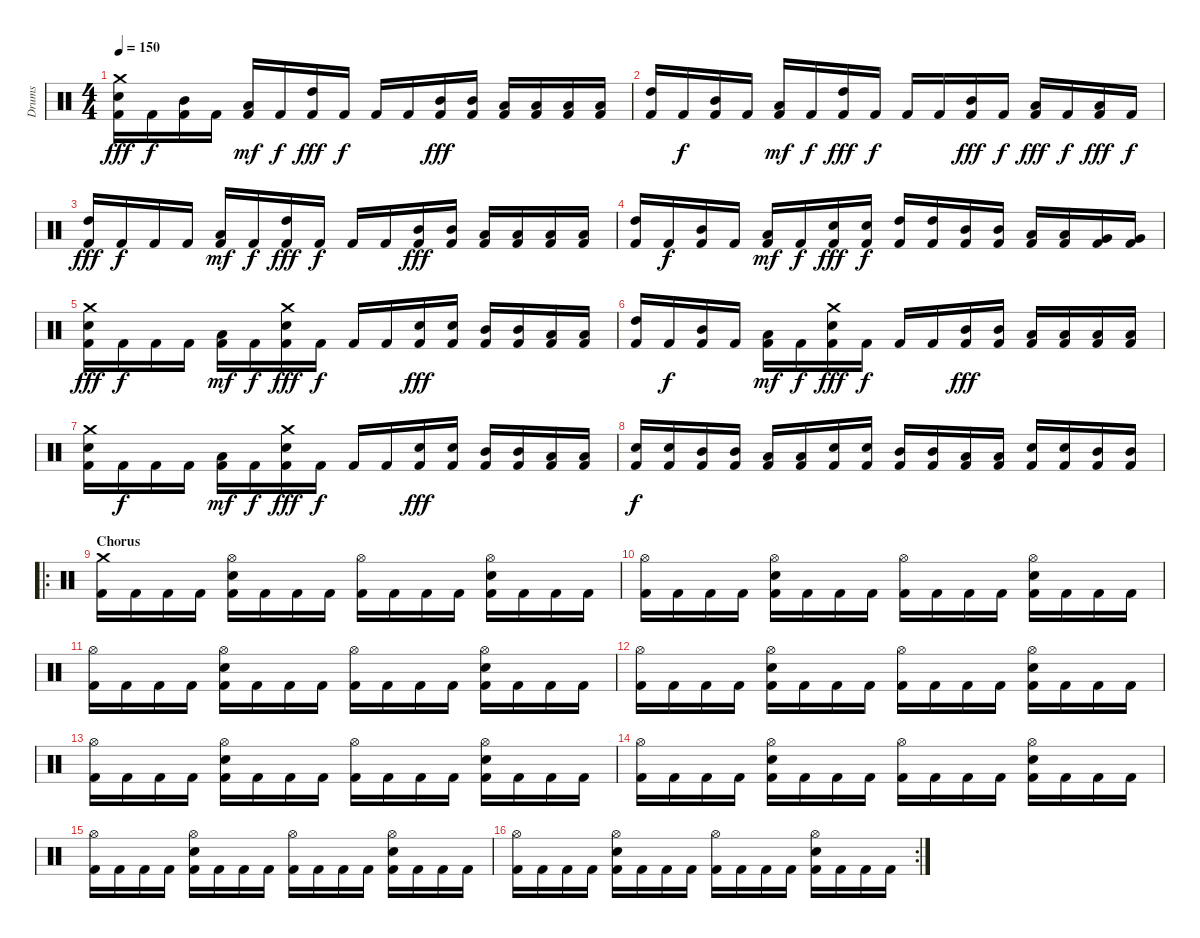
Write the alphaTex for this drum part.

\track ("Drums" "Drums") {instrument percussion}
\staff {score}
\articulation defaults
\ts (4 4)
\tempo 150
\clef neutral
\ks c
("Kick (hit) 2" "Electric Snare (hit)" "Crash medium (hit)").16{dy fff} "Kick (hit) 2".16{dy f} ("Kick (hit) 2" "Mid Tom (hit)").16 "Kick (hit) 2".16 ("Kick (hit) 2" "Low Tom (hit)").16{dy mf} "Kick (hit) 2".16{dy f} ("Kick (hit) 2" "High Tom (hit)").16{dy fff} "Kick (hit) 2".16{dy f} "Kick (hit) 2".16 "Kick (hit) 2".16 ("Kick (hit) 2" "Mid Tom (hit)").16{dy fff} ("Kick (hit) 2" "Mid Tom (hit)").16 ("Kick (hit) 2" "Low Tom (hit)").16 ("Kick (hit) 2" "Low Tom (hit)").16 ("Kick (hit) 2" "Low Tom (hit)").16 ("Kick (hit) 2" "Low Tom (hit)").16 |
("Kick (hit) 2" "High Tom (hit)").16 "Kick (hit) 2".16{dy f} ("Kick (hit) 2" "Mid Tom (hit)").16 "Kick (hit) 2".16 ("Kick (hit) 2" "Low Tom (hit)").16{dy mf} "Kick (hit) 2".16{dy f} ("Kick (hit) 2" "High Tom (hit)").16{dy fff} "Kick (hit) 2".16{dy f} "Kick (hit) 2".16 "Kick (hit) 2".16 ("Kick (hit) 2" "Mid Tom (hit)").16{dy fff} "Kick (hit) 2".16{dy f} ("Kick (hit) 2" "Low Tom (hit)").16{dy fff} "Kick (hit) 2".16{dy f} ("Kick (hit) 2" "Low Tom (hit)").16{dy fff} "Kick (hit) 2".16{dy f} |
("Kick (hit) 2" "High Tom (hit)").16{dy fff} "Kick (hit) 2".16{dy f} "Kick (hit) 2".16 "Kick (hit) 2".16 ("Kick (hit) 2" "Low Tom (hit)").16{dy mf} "Kick (hit) 2".16{dy f} ("Kick (hit) 2" "High Tom (hit)").16{dy fff} "Kick (hit) 2".16{dy f} "Kick (hit) 2".16 "Kick (hit) 2".16 ("Kick (hit) 2" "Mid Tom (hit)").16{dy fff} ("Kick (hit) 2" "Mid Tom (hit)").16 ("Kick (hit) 2" "Low Tom (hit)").16 ("Kick (hit) 2" "Low Tom (hit)").16 ("Kick (hit) 2" "Low Tom (hit)").16 ("Kick (hit) 2" "Low Tom (hit)").16 |
("Kick (hit) 2" "High Tom (hit)").16 "Kick (hit) 2".16{dy f} ("Kick (hit) 2" "Mid Tom (hit)").16 "Kick (hit) 2".16 ("Kick (hit) 2" "Low Tom (hit)").16{dy mf} "Kick (hit) 2".16{dy f} ("Kick (hit) 2" "Electric Snare (hit)").16{dy fff} ("Kick (hit) 2" "Electric Snare (hit)").16{dy f} ("Kick (hit) 2" "High Tom (hit)").16 ("Kick (hit) 2" "High Tom (hit)").16 ("Kick (hit) 2" "Mid Tom (hit)").16 ("Kick (hit) 2" "Mid Tom (hit)").16 ("Kick (hit) 2" "Low Tom (hit)").16 ("Kick (hit) 2" "Low Tom (hit)").16 ("Kick (hit) 2" "Very Low Tom (hit)").16 ("Kick (hit) 2" "Very Low Tom (hit)").16 |
("Kick (hit) 2" "Electric Snare (hit)" "Crash medium (hit)").16{dy fff} "Kick (hit) 2".16{dy f} "Kick (hit) 2".16 "Kick (hit) 2".16 ("Kick (hit) 2" "Low Tom (hit)").16{dy mf} "Kick (hit) 2".16{dy f} ("Kick (hit) 2" "Electric Snare (hit)" "Crash medium (hit)").16{dy fff} "Kick (hit) 2".16{dy f} "Kick (hit) 2".16 "Kick (hit) 2".16 ("Kick (hit) 2" "Electric Snare (hit)").16{dy fff} ("Kick (hit) 2" "Electric Snare (hit)").16 ("Kick (hit) 2" "Mid Tom (hit)").16 ("Kick (hit) 2" "Mid Tom (hit)").16 ("Kick (hit) 2" "Low Tom (hit)").16 ("Kick (hit) 2" "Low Tom (hit)").16 |
("Kick (hit) 2" "High Tom (hit)").16 "Kick (hit) 2".16{dy f} ("Kick (hit) 2" "Mid Tom (hit)").16 "Kick (hit) 2".16 ("Kick (hit) 2" "Low Tom (hit)").16{dy mf} "Kick (hit) 2".16{dy f} ("Kick (hit) 2" "Electric Snare (hit)" "Crash medium (hit)").16{dy fff} "Kick (hit) 2".16{dy f} "Kick (hit) 2".16 "Kick (hit) 2".16 ("Kick (hit) 2" "Mid Tom (hit)").16{dy fff} ("Kick (hit) 2" "Mid Tom (hit)").16 ("Kick (hit) 2" "Low Tom (hit)").16 ("Kick (hit) 2" "Low Tom (hit)").16 ("Kick (hit) 2" "Low Tom (hit)").16 ("Kick (hit) 2" "Low Tom (hit)").16 |
("Kick (hit) 2" "Electric Snare (hit)" "Crash medium (hit)").16 "Kick (hit) 2".16{dy f} "Kick (hit) 2".16 "Kick (hit) 2".16 ("Kick (hit) 2" "Low Tom (hit)").16{dy mf} "Kick (hit) 2".16{dy f} ("Kick (hit) 2" "Electric Snare (hit)" "Crash medium (hit)").16{dy fff} "Kick (hit) 2".16{dy f} "Kick (hit) 2".16 "Kick (hit) 2".16 ("Kick (hit) 2" "Electric Snare (hit)").16{dy fff} ("Kick (hit) 2" "Electric Snare (hit)").16 ("Kick (hit) 2" "Mid Tom (hit)").16 ("Kick (hit) 2" "Mid Tom (hit)").16 ("Kick (hit) 2" "Low Tom (hit)").16 ("Kick (hit) 2" "Low Tom (hit)").16 |
("Kick (hit) 2" "Electric Snare (hit)").16{dy f} ("Kick (hit) 2" "Electric Snare (hit)").16 ("Kick (hit) 2" "Mid Tom (hit)").16 ("Kick (hit) 2" "Mid Tom (hit)").16 ("Kick (hit) 2" "Low Tom (hit)").16 ("Kick (hit) 2" "Low Tom (hit)").16 ("Kick (hit) 2" "Electric Snare (hit)").16 ("Kick (hit) 2" "Electric Snare (hit)").16 ("Kick (hit) 2" "Mid Tom (hit)").16 ("Kick (hit) 2" "Mid Tom (hit)").16 ("Kick (hit) 2" "Low Tom (hit)").16 ("Kick (hit) 2" "Low Tom (hit)").16 ("Kick (hit) 2" "Electric Snare (hit)").16 ("Kick (hit) 2" "Electric Snare (hit)").16 ("Kick (hit) 2" "Mid Tom (hit)").16 ("Kick (hit) 2" "Mid Tom (hit)").16 |
\ro
\section ("" "Chorus")
("Kick (hit) 2" "Crash medium (hit)").16 "Kick (hit) 2".16 "Kick (hit) 2".16 "Kick (hit) 2".16 ("Kick (hit) 2" "Electric Snare (hit)" "Hi-Hat (open)").16 "Kick (hit) 2".16 "Kick (hit) 2".16 "Kick (hit) 2".16 ("Kick (hit) 2" "Hi-Hat (open)").16 "Kick (hit) 2".16 "Kick (hit) 2".16 "Kick (hit) 2".16 ("Kick (hit) 2" "Electric Snare (hit)" "Hi-Hat (open)").16 "Kick (hit) 2".16 "Kick (hit) 2".16 "Kick (hit) 2".16 |
("Kick (hit) 2" "Hi-Hat (open)").16 "Kick (hit) 2".16 "Kick (hit) 2".16 "Kick (hit) 2".16 ("Kick (hit) 2" "Electric Snare (hit)" "Hi-Hat (open)").16 "Kick (hit) 2".16 "Kick (hit) 2".16 "Kick (hit) 2".16 ("Kick (hit) 2" "Hi-Hat (open)").16 "Kick (hit) 2".16 "Kick (hit) 2".16 "Kick (hit) 2".16 ("Kick (hit) 2" "Electric Snare (hit)" "Hi-Hat (open)").16 "Kick (hit) 2".16 "Kick (hit) 2".16 "Kick (hit) 2".16 |
("Kick (hit) 2" "Hi-Hat (open)").16 "Kick (hit) 2".16 "Kick (hit) 2".16 "Kick (hit) 2".16 ("Kick (hit) 2" "Electric Snare (hit)" "Hi-Hat (open)").16 "Kick (hit) 2".16 "Kick (hit) 2".16 "Kick (hit) 2".16 ("Kick (hit) 2" "Hi-Hat (open)").16 "Kick (hit) 2".16 "Kick (hit) 2".16 "Kick (hit) 2".16 ("Kick (hit) 2" "Electric Snare (hit)" "Hi-Hat (open)").16 "Kick (hit) 2".16 "Kick (hit) 2".16 "Kick (hit) 2".16 |
("Kick (hit) 2" "Hi-Hat (open)").16 "Kick (hit) 2".16 "Kick (hit) 2".16 "Kick (hit) 2".16 ("Kick (hit) 2" "Electric Snare (hit)" "Hi-Hat (open)").16 "Kick (hit) 2".16 "Kick (hit) 2".16 "Kick (hit) 2".16 ("Kick (hit) 2" "Hi-Hat (open)").16 "Kick (hit) 2".16 "Kick (hit) 2".16 "Kick (hit) 2".16 ("Kick (hit) 2" "Electric Snare (hit)" "Hi-Hat (open)").16 "Kick (hit) 2".16 "Kick (hit) 2".16 "Kick (hit) 2".16 |
("Kick (hit) 2" "Hi-Hat (open)").16 "Kick (hit) 2".16 "Kick (hit) 2".16 "Kick (hit) 2".16 ("Kick (hit) 2" "Electric Snare (hit)" "Hi-Hat (open)").16 "Kick (hit) 2".16 "Kick (hit) 2".16 "Kick (hit) 2".16 ("Kick (hit) 2" "Hi-Hat (open)").16 "Kick (hit) 2".16 "Kick (hit) 2".16 "Kick (hit) 2".16 ("Kick (hit) 2" "Electric Snare (hit)" "Hi-Hat (open)").16 "Kick (hit) 2".16 "Kick (hit) 2".16 "Kick (hit) 2".16 |
("Kick (hit) 2" "Hi-Hat (open)").16 "Kick (hit) 2".16 "Kick (hit) 2".16 "Kick (hit) 2".16 ("Kick (hit) 2" "Electric Snare (hit)" "Hi-Hat (open)").16 "Kick (hit) 2".16 "Kick (hit) 2".16 "Kick (hit) 2".16 ("Kick (hit) 2" "Hi-Hat (open)").16 "Kick (hit) 2".16 "Kick (hit) 2".16 "Kick (hit) 2".16 ("Kick (hit) 2" "Electric Snare (hit)" "Hi-Hat (open)").16 "Kick (hit) 2".16 "Kick (hit) 2".16 "Kick (hit) 2".16 |
("Kick (hit) 2" "Hi-Hat (open)").16 "Kick (hit) 2".16 "Kick (hit) 2".16 "Kick (hit) 2".16 ("Kick (hit) 2" "Electric Snare (hit)" "Hi-Hat (open)").16 "Kick (hit) 2".16 "Kick (hit) 2".16 "Kick (hit) 2".16 ("Kick (hit) 2" "Hi-Hat (open)").16 "Kick (hit) 2".16 "Kick (hit) 2".16 "Kick (hit) 2".16 ("Kick (hit) 2" "Electric Snare (hit)" "Hi-Hat (open)").16 "Kick (hit) 2".16 "Kick (hit) 2".16 "Kick (hit) 2".16 |
\rc 2
("Kick (hit) 2" "Hi-Hat (open)").16 "Kick (hit) 2".16 "Kick (hit) 2".16 "Kick (hit) 2".16 ("Kick (hit) 2" "Electric Snare (hit)" "Hi-Hat (open)").16 "Kick (hit) 2".16 "Kick (hit) 2".16 "Kick (hit) 2".16 ("Kick (hit) 2" "Hi-Hat (open)").16 "Kick (hit) 2".16 "Kick (hit) 2".16 "Kick (hit) 2".16 ("Kick (hit) 2" "Electric Snare (hit)" "Hi-Hat (open)").16 "Kick (hit) 2".16 "Kick (hit) 2".16 "Kick (hit) 2".16
